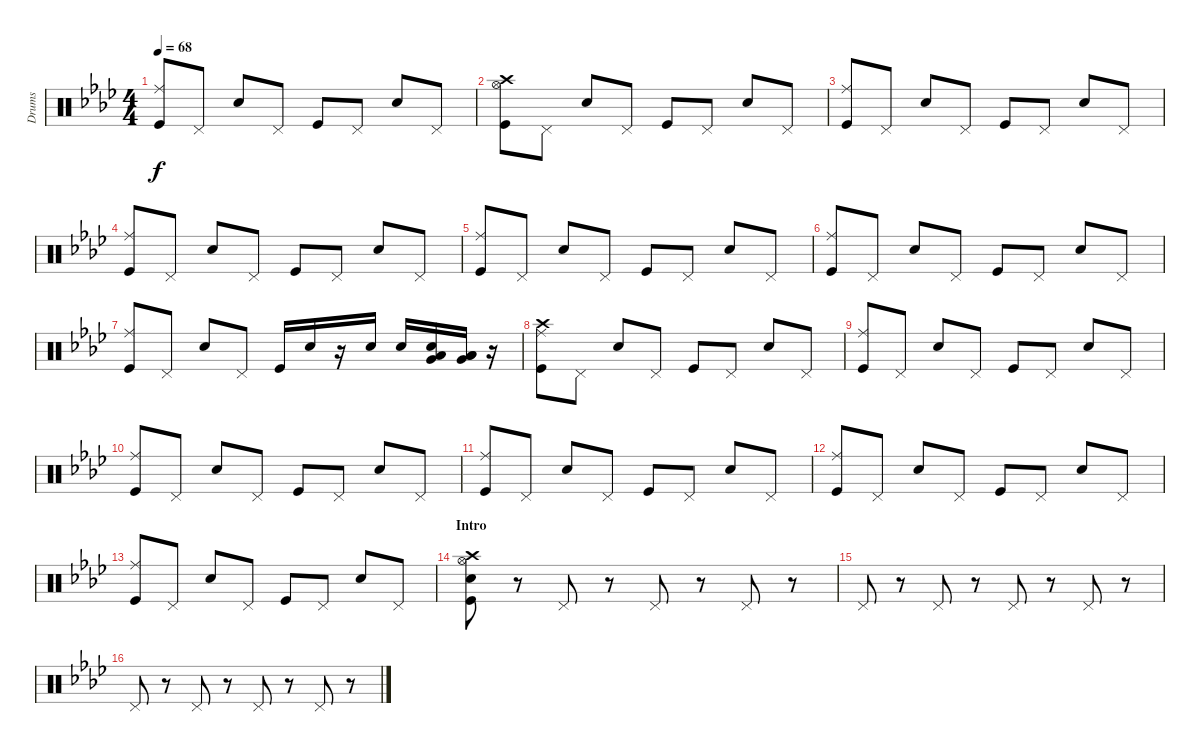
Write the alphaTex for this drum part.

\track ("Drums" "Drums") {instrument percussion}
\staff {score}
\articulation defaults
\ts (4 4)
\tempo 68
\clef neutral
\ks ab
("Kick (hit)" "Ride (middle)").8{dy f} "Pedal Hi-Hat (hit)".8 "Snare (hit) 2".8 "Pedal Hi-Hat (hit)".8 "Kick (hit)".8 "Pedal Hi-Hat (hit)".8 "Snare (hit) 2".8 "Pedal Hi-Hat (hit)".8 |
("Kick (hit)" "Hi-Hat (open)" "Crash high (hit)").8 "Pedal Hi-Hat (hit)".8 "Snare (hit) 2".8 "Pedal Hi-Hat (hit)".8 "Kick (hit)".8 "Pedal Hi-Hat (hit)".8 "Snare (hit) 2".8 "Pedal Hi-Hat (hit)".8 |
("Kick (hit)" "Ride (middle)").8 "Pedal Hi-Hat (hit)".8 "Snare (hit) 2".8 "Pedal Hi-Hat (hit)".8 "Kick (hit)".8 "Pedal Hi-Hat (hit)".8 "Snare (hit) 2".8 "Pedal Hi-Hat (hit)".8 |
("Kick (hit)" "Ride (middle)").8 "Pedal Hi-Hat (hit)".8 "Snare (hit) 2".8 "Pedal Hi-Hat (hit)".8 "Kick (hit)".8 "Pedal Hi-Hat (hit)".8 "Snare (hit) 2".8 "Pedal Hi-Hat (hit)".8 |
("Kick (hit)" "Ride (middle)").8 "Pedal Hi-Hat (hit)".8 "Snare (hit) 2".8 "Pedal Hi-Hat (hit)".8 "Kick (hit)".8 "Pedal Hi-Hat (hit)".8 "Snare (hit) 2".8 "Pedal Hi-Hat (hit)".8 |
("Kick (hit)" "Ride (middle)").8 "Pedal Hi-Hat (hit)".8 "Snare (hit) 2".8 "Pedal Hi-Hat (hit)".8 "Kick (hit)".8 "Pedal Hi-Hat (hit)".8 "Snare (hit) 2".8 "Pedal Hi-Hat (hit)".8 |
("Kick (hit)" "Ride (middle)").8 "Pedal Hi-Hat (hit)".8 "Snare (hit) 2".8 "Pedal Hi-Hat (hit)".8 "Kick (hit)".16 "Snare (hit) 2".16 r.16 "Snare (hit) 2".16 "Snare (hit) 2".16 ("Very Low Tom (hit)" "Low Tom (hit)" "Snare (hit) 2").16 ("Very Low Tom (hit)" "Low Floor Tom (hit)" "Low Tom (hit)").16 r.16 |
("Kick (hit)" "Ride (middle)" "Crash high (hit)").8 "Pedal Hi-Hat (hit)".8 "Snare (hit) 2".8 "Pedal Hi-Hat (hit)".8 "Kick (hit)".8 "Pedal Hi-Hat (hit)".8 "Snare (hit) 2".8 "Pedal Hi-Hat (hit)".8 |
("Kick (hit)" "Ride (middle)").8 "Pedal Hi-Hat (hit)".8 "Snare (hit) 2".8 "Pedal Hi-Hat (hit)".8 "Kick (hit)".8 "Pedal Hi-Hat (hit)".8 "Snare (hit) 2".8 "Pedal Hi-Hat (hit)".8 |
("Kick (hit)" "Ride (middle)").8 "Pedal Hi-Hat (hit)".8 "Snare (hit) 2".8 "Pedal Hi-Hat (hit)".8 "Kick (hit)".8 "Pedal Hi-Hat (hit)".8 "Snare (hit) 2".8 "Pedal Hi-Hat (hit)".8 |
("Kick (hit)" "Ride (middle)").8 "Pedal Hi-Hat (hit)".8 "Snare (hit) 2".8 "Pedal Hi-Hat (hit)".8 "Kick (hit)".8 "Pedal Hi-Hat (hit)".8 "Snare (hit) 2".8 "Pedal Hi-Hat (hit)".8 |
("Kick (hit)" "Ride (middle)").8 "Pedal Hi-Hat (hit)".8 "Snare (hit) 2".8 "Pedal Hi-Hat (hit)".8 "Kick (hit)".8 "Pedal Hi-Hat (hit)".8 "Snare (hit) 2".8 "Pedal Hi-Hat (hit)".8 |
("Kick (hit)" "Ride (middle)").8 "Pedal Hi-Hat (hit)".8 "Snare (hit) 2".8 "Pedal Hi-Hat (hit)".8 "Kick (hit)".8 "Pedal Hi-Hat (hit)".8 "Snare (hit) 2".8 "Pedal Hi-Hat (hit)".8 |
\section ("" "Intro")
("Kick (hit)" "Hi-Hat (open)" "Snare (hit) 2" "Crash high (hit)").8 r.8 "Pedal Hi-Hat (hit)".8 r.8 "Pedal Hi-Hat (hit)".8 r.8 "Pedal Hi-Hat (hit)".8 r.8 |
"Pedal Hi-Hat (hit)".8 r.8 "Pedal Hi-Hat (hit)".8 r.8 "Pedal Hi-Hat (hit)".8 r.8 "Pedal Hi-Hat (hit)".8 r.8 |
"Pedal Hi-Hat (hit)".8 r.8 "Pedal Hi-Hat (hit)".8 r.8 "Pedal Hi-Hat (hit)".8 r.8 "Pedal Hi-Hat (hit)".8 r.8
